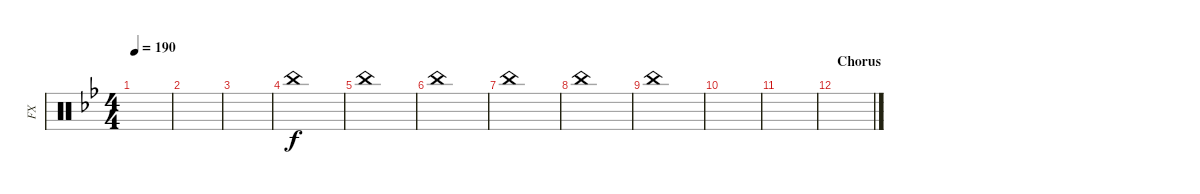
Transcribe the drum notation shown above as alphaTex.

\track ("FX" "FX") {instrument percussion}
\staff {score}
\articulation defaults
\ts (4 4)
\tempo 190
\clef neutral
\ks bb
|
|
|
"China (hit)".1 |
"China (hit)".1 |
"China (hit)".1 |
"China (hit)".1 |
"China (hit)".1 |
"China (hit)".1 |
|
|
\section ("" "Chorus")
